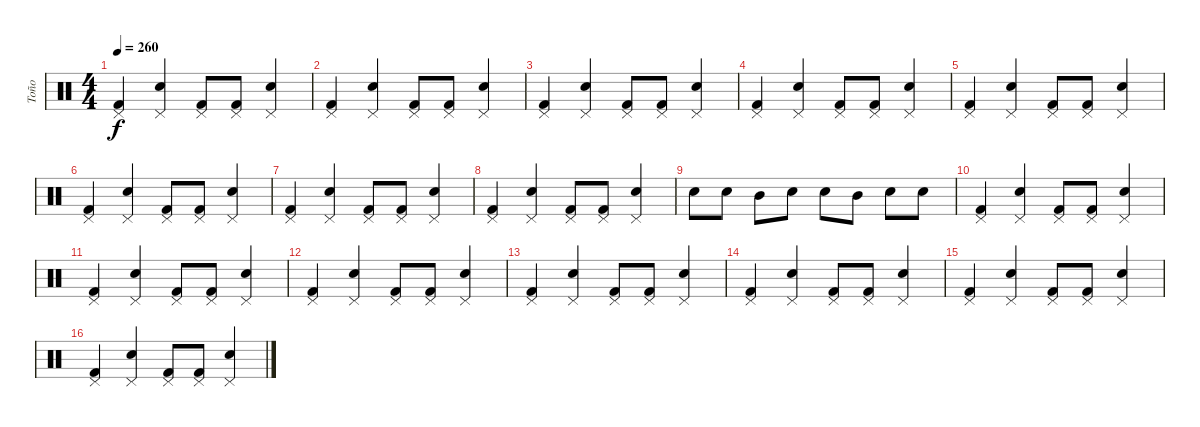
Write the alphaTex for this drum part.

\track ("Toño" "Toño") {instrument percussion}
\staff {score}
\articulation defaults
\ts (4 4)
\tempo 260
\clef neutral
\ks c
("Pedal Hi-Hat (hit)" "Kick (hit) 2").4{dy f} ("Pedal Hi-Hat (hit)" "Electric Snare (hit)").4 ("Pedal Hi-Hat (hit)" "Kick (hit) 2").8 ("Pedal Hi-Hat (hit)" "Kick (hit) 2").8 ("Pedal Hi-Hat (hit)" "Electric Snare (hit)").4 |
("Pedal Hi-Hat (hit)" "Kick (hit) 2").4 ("Pedal Hi-Hat (hit)" "Electric Snare (hit)").4 ("Pedal Hi-Hat (hit)" "Kick (hit) 2").8 ("Pedal Hi-Hat (hit)" "Kick (hit) 2").8 ("Pedal Hi-Hat (hit)" "Electric Snare (hit)").4 |
("Pedal Hi-Hat (hit)" "Kick (hit) 2").4 ("Pedal Hi-Hat (hit)" "Electric Snare (hit)").4 ("Pedal Hi-Hat (hit)" "Kick (hit) 2").8 ("Pedal Hi-Hat (hit)" "Kick (hit) 2").8 ("Pedal Hi-Hat (hit)" "Electric Snare (hit)").4 |
("Pedal Hi-Hat (hit)" "Kick (hit) 2").4 ("Pedal Hi-Hat (hit)" "Electric Snare (hit)").4 ("Pedal Hi-Hat (hit)" "Kick (hit) 2").8 ("Pedal Hi-Hat (hit)" "Kick (hit) 2").8 ("Pedal Hi-Hat (hit)" "Electric Snare (hit)").4 |
("Pedal Hi-Hat (hit)" "Kick (hit) 2").4 ("Pedal Hi-Hat (hit)" "Electric Snare (hit)").4 ("Pedal Hi-Hat (hit)" "Kick (hit) 2").8 ("Pedal Hi-Hat (hit)" "Kick (hit) 2").8 ("Pedal Hi-Hat (hit)" "Electric Snare (hit)").4 |
("Pedal Hi-Hat (hit)" "Kick (hit) 2").4 ("Pedal Hi-Hat (hit)" "Electric Snare (hit)").4 ("Pedal Hi-Hat (hit)" "Kick (hit) 2").8 ("Pedal Hi-Hat (hit)" "Kick (hit) 2").8 ("Pedal Hi-Hat (hit)" "Electric Snare (hit)").4 |
("Pedal Hi-Hat (hit)" "Kick (hit) 2").4 ("Pedal Hi-Hat (hit)" "Electric Snare (hit)").4 ("Pedal Hi-Hat (hit)" "Kick (hit) 2").8 ("Pedal Hi-Hat (hit)" "Kick (hit) 2").8 ("Pedal Hi-Hat (hit)" "Electric Snare (hit)").4 |
("Pedal Hi-Hat (hit)" "Kick (hit) 2").4 ("Pedal Hi-Hat (hit)" "Electric Snare (hit)").4 ("Pedal Hi-Hat (hit)" "Kick (hit) 2").8 ("Pedal Hi-Hat (hit)" "Kick (hit) 2").8 ("Pedal Hi-Hat (hit)" "Electric Snare (hit)").4 |
"Electric Snare (hit)".8 "Electric Snare (hit)".8 "Mid Tom (hit)".8 "Electric Snare (hit)".8 "Electric Snare (hit)".8 "Mid Tom (hit)".8 "Electric Snare (hit)".8 "Electric Snare (hit)".8 |
("Pedal Hi-Hat (hit)" "Kick (hit) 2").4 ("Pedal Hi-Hat (hit)" "Electric Snare (hit)").4 ("Pedal Hi-Hat (hit)" "Kick (hit) 2").8 ("Pedal Hi-Hat (hit)" "Kick (hit) 2").8 ("Pedal Hi-Hat (hit)" "Electric Snare (hit)").4 |
("Pedal Hi-Hat (hit)" "Kick (hit) 2").4 ("Pedal Hi-Hat (hit)" "Electric Snare (hit)").4 ("Pedal Hi-Hat (hit)" "Kick (hit) 2").8 ("Pedal Hi-Hat (hit)" "Kick (hit) 2").8 ("Pedal Hi-Hat (hit)" "Electric Snare (hit)").4 |
("Pedal Hi-Hat (hit)" "Kick (hit) 2").4 ("Pedal Hi-Hat (hit)" "Electric Snare (hit)").4 ("Pedal Hi-Hat (hit)" "Kick (hit) 2").8 ("Pedal Hi-Hat (hit)" "Kick (hit) 2").8 ("Pedal Hi-Hat (hit)" "Electric Snare (hit)").4 |
("Pedal Hi-Hat (hit)" "Kick (hit) 2").4 ("Pedal Hi-Hat (hit)" "Electric Snare (hit)").4 ("Pedal Hi-Hat (hit)" "Kick (hit) 2").8 ("Pedal Hi-Hat (hit)" "Kick (hit) 2").8 ("Pedal Hi-Hat (hit)" "Electric Snare (hit)").4 |
("Pedal Hi-Hat (hit)" "Kick (hit) 2").4 ("Pedal Hi-Hat (hit)" "Electric Snare (hit)").4 ("Pedal Hi-Hat (hit)" "Kick (hit) 2").8 ("Pedal Hi-Hat (hit)" "Kick (hit) 2").8 ("Pedal Hi-Hat (hit)" "Electric Snare (hit)").4 |
("Pedal Hi-Hat (hit)" "Kick (hit) 2").4 ("Pedal Hi-Hat (hit)" "Electric Snare (hit)").4 ("Pedal Hi-Hat (hit)" "Kick (hit) 2").8 ("Pedal Hi-Hat (hit)" "Kick (hit) 2").8 ("Pedal Hi-Hat (hit)" "Electric Snare (hit)").4 |
("Pedal Hi-Hat (hit)" "Kick (hit) 2").4 ("Pedal Hi-Hat (hit)" "Electric Snare (hit)").4 ("Pedal Hi-Hat (hit)" "Kick (hit) 2").8 ("Pedal Hi-Hat (hit)" "Kick (hit) 2").8 ("Pedal Hi-Hat (hit)" "Electric Snare (hit)").4
